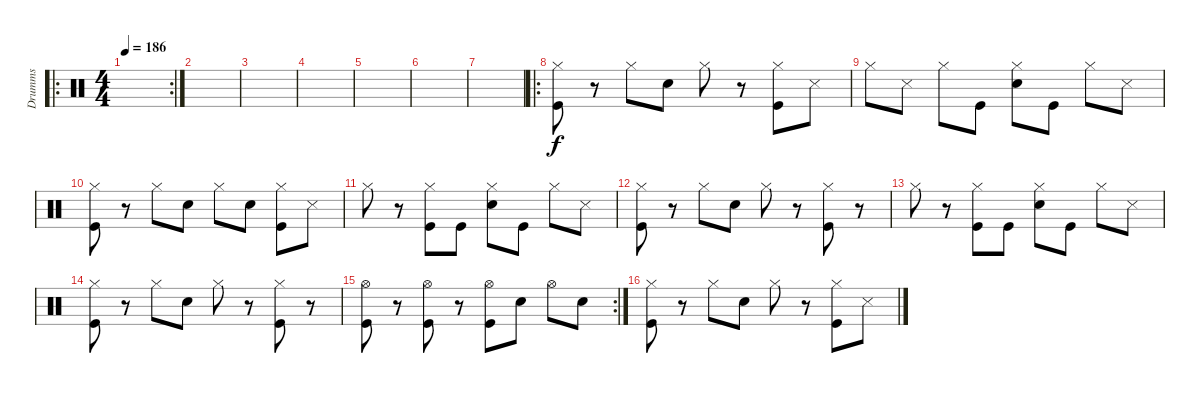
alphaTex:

\track ("Drumms" "Drumms") {instrument percussion}
\staff {score}
\articulation defaults
\ro
\rc 2
\ts (4 4)
\tempo 186
\clef neutral
\ks c
|
|
|
|
|
|
|
\ro
("Hi-Hat (closed)" "Kick (hit)").8 r.8 "Hi-Hat (closed)".8 "Snare (hit) 2".8 "Hi-Hat (closed)".8 r.8 ("Hi-Hat (closed)" "Kick (hit)").8 "Metronome (hit)".8 |
"Hi-Hat (closed)".8 "Metronome (hit)".8 "Hi-Hat (closed)".8 "Kick (hit)".8 ("Hi-Hat (closed)" "Snare (hit) 2").8 "Kick (hit)".8 "Hi-Hat (closed)".8 "Metronome (hit)".8 |
("Hi-Hat (closed)" "Kick (hit)").8 r.8 "Hi-Hat (closed)".8 "Snare (hit) 2".8 "Hi-Hat (closed)".8 "Snare (hit) 2".8 ("Hi-Hat (closed)" "Kick (hit)").8 "Metronome (hit)".8 |
"Hi-Hat (closed)".8 r.8 ("Hi-Hat (closed)" "Kick (hit)").8 "Kick (hit)".8 ("Hi-Hat (closed)" "Snare (hit) 2").8 "Kick (hit)".8 "Hi-Hat (closed)".8 "Metronome (hit)".8 |
("Hi-Hat (closed)" "Kick (hit)").8 r.8 "Hi-Hat (closed)".8 "Snare (hit) 2".8 "Hi-Hat (closed)".8 r.8 ("Hi-Hat (closed)" "Kick (hit)").8 r.8 |
"Hi-Hat (closed)".8 r.8 ("Hi-Hat (closed)" "Kick (hit)").8 "Kick (hit)".8 ("Hi-Hat (closed)" "Snare (hit) 2").8 "Kick (hit)".8 "Hi-Hat (closed)".8 "Metronome (hit)".8 |
("Hi-Hat (closed)" "Kick (hit)").8 r.8 "Hi-Hat (closed)".8 "Snare (hit) 2".8 "Hi-Hat (closed)".8 r.8 ("Hi-Hat (closed)" "Kick (hit)").8 r.8 |
\rc 2
("Hi-Hat (open)" "Kick (hit)").8 r.8 ("Hi-Hat (open)" "Kick (hit)").8 r.8 ("Hi-Hat (open)" "Kick (hit)").8 "Snare (hit) 2".8 "Hi-Hat (open)".8 "Snare (hit) 2".8 |
("Hi-Hat (closed)" "Kick (hit)").8 r.8 "Hi-Hat (closed)".8 "Snare (hit) 2".8 "Hi-Hat (closed)".8 r.8 ("Hi-Hat (closed)" "Kick (hit)").8 "Metronome (hit)".8
